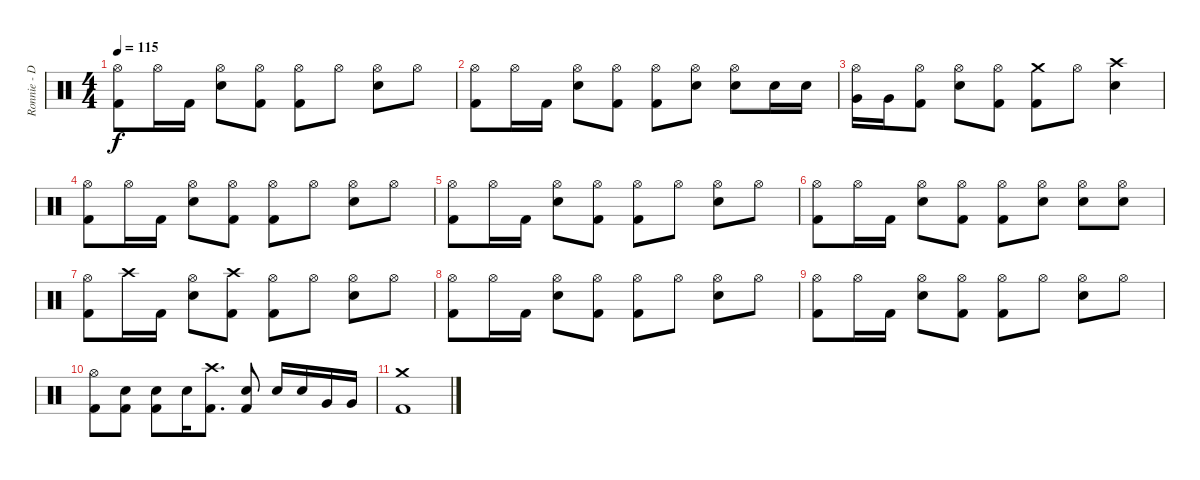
\track ("Ronnie - Drums" "Ronnie - D") {instrument percussion}
\staff {score}
\articulation defaults
\ts (4 4)
\tempo 115
\clef neutral
\ks c
("Hi-Hat (open)" "Kick (hit) 2").8{dy f} "Hi-Hat (open)".16 "Kick (hit) 2".16 ("Hi-Hat (open)" "Electric Snare (hit)").8 ("Hi-Hat (open)" "Kick (hit) 2").8 ("Hi-Hat (open)" "Kick (hit) 2").8 "Hi-Hat (open)".8 ("Hi-Hat (open)" "Electric Snare (hit)").8 "Hi-Hat (open)".8 |
("Hi-Hat (open)" "Kick (hit) 2").8 "Hi-Hat (open)".16 "Kick (hit) 2".16 ("Hi-Hat (open)" "Electric Snare (hit)").8 ("Hi-Hat (open)" "Kick (hit) 2").8 ("Hi-Hat (open)" "Kick (hit) 2").8 ("Hi-Hat (open)" "Electric Snare (hit)").8 ("Hi-Hat (open)" "Electric Snare (hit)").8 "Electric Snare (hit)".16 "Electric Snare (hit)".16 |
("Hi-Hat (open)" "Very Low Tom (hit)").16 "Very Low Tom (hit)".16 ("Hi-Hat (open)" "Kick (hit) 2").8 ("Hi-Hat (open)" "Electric Snare (hit)").8 ("Hi-Hat (open)" "Kick (hit) 2").8 ("Crash medium (hit)" "Kick (hit) 2").8 "Hi-Hat (open)".8 ("Crash high (hit)" "Electric Snare (hit)").4 |
("Hi-Hat (open)" "Kick (hit) 2").8 "Hi-Hat (open)".16 "Kick (hit) 2".16 ("Hi-Hat (open)" "Electric Snare (hit)").8 ("Hi-Hat (open)" "Kick (hit) 2").8 ("Hi-Hat (open)" "Kick (hit) 2").8 "Hi-Hat (open)".8 ("Hi-Hat (open)" "Electric Snare (hit)").8 "Hi-Hat (open)".8 |
("Hi-Hat (open)" "Kick (hit) 2").8 "Hi-Hat (open)".16 "Kick (hit) 2".16 ("Hi-Hat (open)" "Electric Snare (hit)").8 ("Hi-Hat (open)" "Kick (hit) 2").8 ("Hi-Hat (open)" "Kick (hit) 2").8 "Hi-Hat (open)".8 ("Hi-Hat (open)" "Electric Snare (hit)").8 "Hi-Hat (open)".8 |
("Hi-Hat (open)" "Kick (hit) 2").8 "Hi-Hat (open)".16 "Kick (hit) 2".16 ("Hi-Hat (open)" "Electric Snare (hit)").8 ("Hi-Hat (open)" "Kick (hit) 2").8 ("Hi-Hat (open)" "Kick (hit) 2").8 ("Hi-Hat (open)" "Electric Snare (hit)").8 ("Hi-Hat (open)" "Electric Snare (hit)").8 ("Hi-Hat (open)" "Electric Snare (hit)").8 |
("Hi-Hat (open)" "Kick (hit) 2").8 "Crash high (hit)".16 "Kick (hit) 2".16 ("Hi-Hat (open)" "Electric Snare (hit)").8 ("Crash high (hit)" "Kick (hit) 2").8 ("Hi-Hat (open)" "Kick (hit) 2").8 "Hi-Hat (open)".8 ("Hi-Hat (open)" "Electric Snare (hit)").8 "Hi-Hat (open)".8 |
("Hi-Hat (open)" "Kick (hit) 2").8 "Hi-Hat (open)".16 "Kick (hit) 2".16 ("Hi-Hat (open)" "Electric Snare (hit)").8 ("Hi-Hat (open)" "Kick (hit) 2").8 ("Hi-Hat (open)" "Kick (hit) 2").8 "Hi-Hat (open)".8 ("Hi-Hat (open)" "Electric Snare (hit)").8 "Hi-Hat (open)".8 |
("Hi-Hat (open)" "Kick (hit) 2").8 "Hi-Hat (open)".16 "Kick (hit) 2".16 ("Hi-Hat (open)" "Electric Snare (hit)").8 ("Hi-Hat (open)" "Kick (hit) 2").8 ("Hi-Hat (open)" "Kick (hit) 2").8 "Hi-Hat (open)".8 ("Hi-Hat (open)" "Electric Snare (hit)").8 "Hi-Hat (open)".8 |
("Hi-Hat (open)" "Kick (hit) 2").8 ("Electric Snare (hit)" "Kick (hit) 2").8 ("Electric Snare (hit)" "Kick (hit) 2").8 "Electric Snare (hit)".16 ("Crash high (hit)" "Kick (hit) 2").8{d} ("Electric Snare (hit)" "Kick (hit) 2").8 "Electric Snare (hit)".16 "Electric Snare (hit)".16 "Very Low Tom (hit)".16 "Very Low Tom (hit)".16 |
("Crash medium (hit)" "Kick (hit) 2").1
